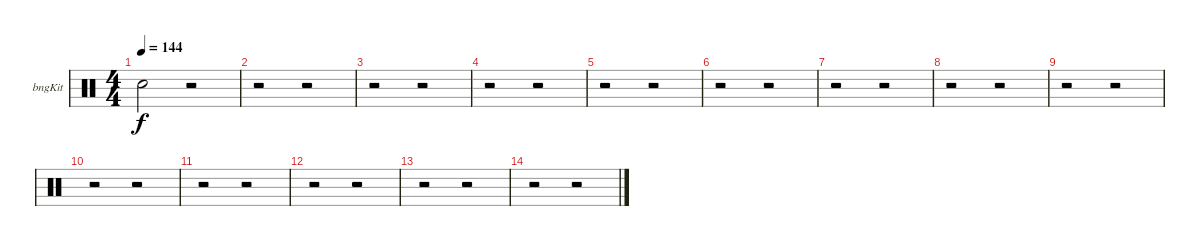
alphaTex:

\bracketExtendMode groupsimilarinstruments
\firstSystemTrackNameOrientation horizontal
\otherSystemsTrackNameOrientation horizontal
\track ("Bongos" "bngKit") {instrument percussion}
\staff {score}
\articulation defaults
\ts (4 4)
\tempo 144
\clef neutral
\ks c "Snare (hit) 2".2{dy f}
r.2 |
r.2 r.2 |
r.2 r.2 |
r.2 r.2 |
r.2 r.2 |
r.2 r.2 |
r.2 r.2 |
r.2 r.2 |
r.2 r.2 |
r.2 r.2 |
r.2 r.2 |
r.2 r.2 |
r.2 r.2 |
r.2 r.2
